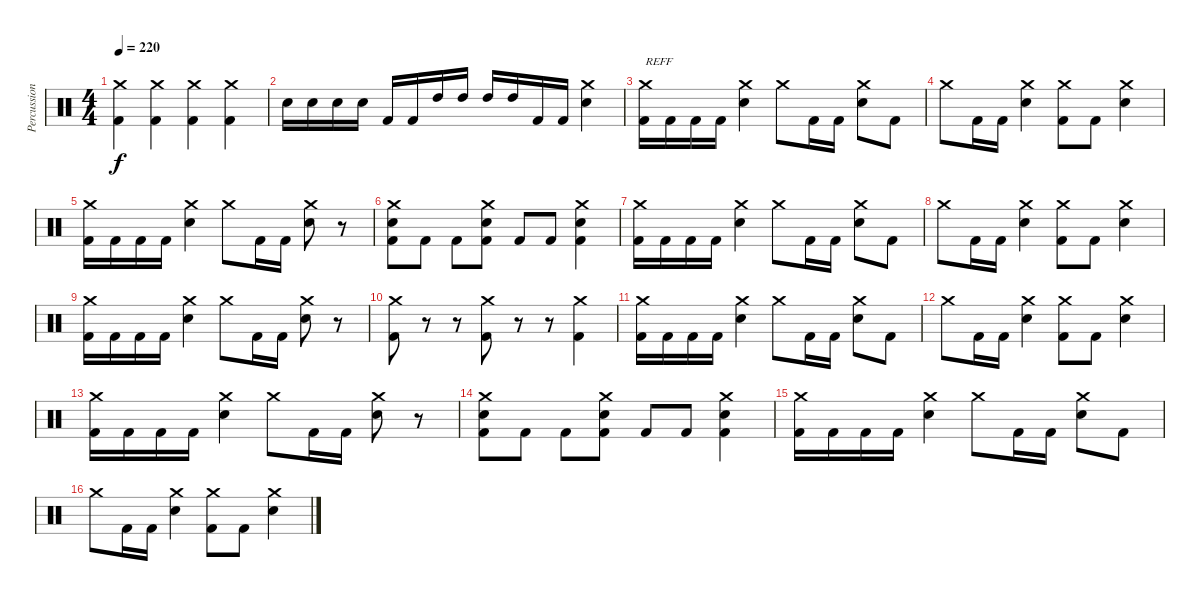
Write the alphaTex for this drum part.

\track ("Percussion" "Percussion") {solo instrument percussion}
\staff {score}
\articulation defaults
\ts (4 4)
\tempo 220
\clef neutral
\ks c
("Crash medium (hit)" "Kick (hit) 2").4{dy f} ("Crash medium (hit)" "Kick (hit) 2").4 ("Crash medium (hit)" "Kick (hit) 2").4 ("Crash medium (hit)" "Kick (hit) 2").4 |
"Electric Snare (hit)".16 "Electric Snare (hit)".16 "Electric Snare (hit)".16 "Electric Snare (hit)".16 "Kick (hit) 2".16 "Kick (hit) 2".16 "High Tom (hit)".16 "High Tom (hit)".16 "High Tom (hit)".16 "High Tom (hit)".16 "Kick (hit) 2".16 "Kick (hit) 2".16 ("Crash medium (hit)" "Electric Snare (hit)").4 |
("Crash medium (hit)" "Kick (hit) 2").16{txt "REFF"} "Kick (hit) 2".16 "Kick (hit) 2".16 "Kick (hit) 2".16 ("Crash medium (hit)" "Electric Snare (hit)").4 "Crash medium (hit)".8 "Kick (hit) 2".16 "Kick (hit) 2".16 ("Crash medium (hit)" "Electric Snare (hit)").8 "Kick (hit) 2".8 |
"Crash medium (hit)".8 "Kick (hit) 2".16 "Kick (hit) 2".16 ("Crash medium (hit)" "Electric Snare (hit)").4 ("Crash medium (hit)" "Kick (hit) 2").8 "Kick (hit) 2".8 ("Crash medium (hit)" "Electric Snare (hit)").4 |
("Crash medium (hit)" "Kick (hit) 2").16 "Kick (hit) 2".16 "Kick (hit) 2".16 "Kick (hit) 2".16 ("Crash medium (hit)" "Electric Snare (hit)").4 "Crash medium (hit)".8 "Kick (hit) 2".16 "Kick (hit) 2".16 ("Crash medium (hit)" "Electric Snare (hit)").8 r.8 |
("Crash medium (hit)" "Electric Snare (hit)" "Kick (hit) 2").8 "Kick (hit) 2".8 "Kick (hit) 2".8 ("Crash medium (hit)" "Electric Snare (hit)" "Kick (hit) 2").8 "Kick (hit) 2".8 "Kick (hit) 2".8 ("Crash medium (hit)" "Electric Snare (hit)" "Kick (hit) 2").4 |
("Crash medium (hit)" "Kick (hit) 2").16 "Kick (hit) 2".16 "Kick (hit) 2".16 "Kick (hit) 2".16 ("Crash medium (hit)" "Electric Snare (hit)").4 "Crash medium (hit)".8 "Kick (hit) 2".16 "Kick (hit) 2".16 ("Crash medium (hit)" "Electric Snare (hit)").8 "Kick (hit) 2".8 |
"Crash medium (hit)".8 "Kick (hit) 2".16 "Kick (hit) 2".16 ("Crash medium (hit)" "Electric Snare (hit)").4 ("Crash medium (hit)" "Kick (hit) 2").8 "Kick (hit) 2".8 ("Crash medium (hit)" "Electric Snare (hit)").4 |
("Crash medium (hit)" "Kick (hit) 2").16 "Kick (hit) 2".16 "Kick (hit) 2".16 "Kick (hit) 2".16 ("Crash medium (hit)" "Electric Snare (hit)").4 "Crash medium (hit)".8 "Kick (hit) 2".16 "Kick (hit) 2".16 ("Crash medium (hit)" "Electric Snare (hit)").8 r.8 |
("Crash medium (hit)" "Kick (hit) 2").8 r.8 r.8 ("Crash medium (hit)" "Kick (hit) 2").8 r.8 r.8 ("Crash medium (hit)" "Kick (hit) 2").4 |
("Crash medium (hit)" "Kick (hit) 2").16 "Kick (hit) 2".16 "Kick (hit) 2".16 "Kick (hit) 2".16 ("Crash medium (hit)" "Electric Snare (hit)").4 "Crash medium (hit)".8 "Kick (hit) 2".16 "Kick (hit) 2".16 ("Crash medium (hit)" "Electric Snare (hit)").8 "Kick (hit) 2".8 |
"Crash medium (hit)".8 "Kick (hit) 2".16 "Kick (hit) 2".16 ("Crash medium (hit)" "Electric Snare (hit)").4 ("Crash medium (hit)" "Kick (hit) 2").8 "Kick (hit) 2".8 ("Crash medium (hit)" "Electric Snare (hit)").4 |
("Crash medium (hit)" "Kick (hit) 2").16 "Kick (hit) 2".16 "Kick (hit) 2".16 "Kick (hit) 2".16 ("Crash medium (hit)" "Electric Snare (hit)").4 "Crash medium (hit)".8 "Kick (hit) 2".16 "Kick (hit) 2".16 ("Crash medium (hit)" "Electric Snare (hit)").8 r.8 |
("Crash medium (hit)" "Electric Snare (hit)" "Kick (hit) 2").8 "Kick (hit) 2".8 "Kick (hit) 2".8 ("Crash medium (hit)" "Electric Snare (hit)" "Kick (hit) 2").8 "Kick (hit) 2".8 "Kick (hit) 2".8 ("Crash medium (hit)" "Electric Snare (hit)" "Kick (hit) 2").4 |
("Crash medium (hit)" "Kick (hit) 2").16 "Kick (hit) 2".16 "Kick (hit) 2".16 "Kick (hit) 2".16 ("Crash medium (hit)" "Electric Snare (hit)").4 "Crash medium (hit)".8 "Kick (hit) 2".16 "Kick (hit) 2".16 ("Crash medium (hit)" "Electric Snare (hit)").8 "Kick (hit) 2".8 |
"Crash medium (hit)".8 "Kick (hit) 2".16 "Kick (hit) 2".16 ("Crash medium (hit)" "Electric Snare (hit)").4 ("Crash medium (hit)" "Kick (hit) 2").8 "Kick (hit) 2".8 ("Crash medium (hit)" "Electric Snare (hit)").4
